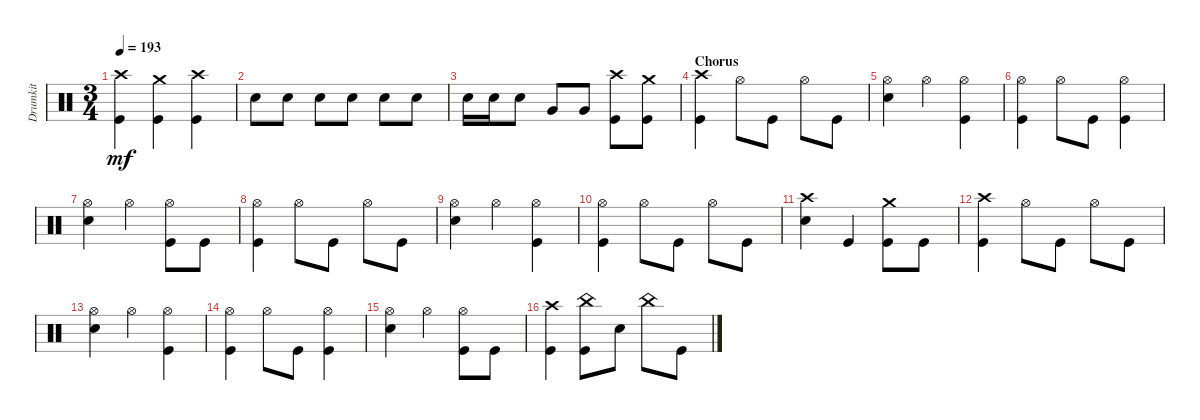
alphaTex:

\track ("Drumkit" "Drumkit") {instrument percussion}
\staff {score}
\articulation defaults
\ts (3 4)
\tempo 193
\clef neutral
\ks c
("Kick (hit)" "Crash high (hit)").4{dy mf} ("Kick (hit)" "Crash medium (hit)").4 ("Kick (hit)" "Crash high (hit)").4 |
"Snare (hit) 2".8 "Snare (hit) 2".8 "Snare (hit) 2".8 "Snare (hit) 2".8 "Snare (hit) 2".8 "Snare (hit) 2".8 |
"Snare (hit) 2".16 "Snare (hit) 2".16 "Snare (hit) 2".8 "Very Low Tom (hit)".8 "Very Low Tom (hit)".8 ("Kick (hit)" "Crash high (hit)").8 ("Kick (hit)" "Crash medium (hit)").8 |
\section ("" "Chorus")
("Crash high (hit)" "Kick (hit)").4 "Hi-Hat (open)".8 "Kick (hit)".8 "Hi-Hat (open)".8 "Kick (hit)".8 |
("Hi-Hat (open)" "Snare (hit) 2").4 "Hi-Hat (open)".4 ("Kick (hit)" "Hi-Hat (open)").4 |
("Kick (hit)" "Hi-Hat (open)").4 "Hi-Hat (open)".8 "Kick (hit)".8 ("Hi-Hat (open)" "Kick (hit)").4 |
("Hi-Hat (open)" "Snare (hit) 2").4 "Hi-Hat (open)".4 ("Kick (hit)" "Hi-Hat (open)").8 "Kick (hit)".8 |
("Kick (hit)" "Hi-Hat (open)").4 "Hi-Hat (open)".8 "Kick (hit)".8 "Hi-Hat (open)".8 "Kick (hit)".8 |
("Hi-Hat (open)" "Snare (hit) 2").4 "Hi-Hat (open)".4 ("Kick (hit)" "Hi-Hat (open)").4 |
("Kick (hit)" "Hi-Hat (open)").4 "Hi-Hat (open)".8 "Kick (hit)".8 "Hi-Hat (open)".8 "Kick (hit)".8 |
("Snare (hit) 2" "Crash high (hit)").4 "Kick (hit)".4 ("Kick (hit)" "Crash medium (hit)").8 "Kick (hit)".8 |
("Crash high (hit)" "Kick (hit)").4 "Hi-Hat (open)".8 "Kick (hit)".8 "Hi-Hat (open)".8 "Kick (hit)".8 |
("Hi-Hat (open)" "Snare (hit) 2").4 "Hi-Hat (open)".4 ("Kick (hit)" "Hi-Hat (open)").4 |
("Kick (hit)" "Hi-Hat (open)").4 "Hi-Hat (open)".8 "Kick (hit)".8 ("Hi-Hat (open)" "Kick (hit)").4 |
("Hi-Hat (open)" "Snare (hit) 2").4 "Hi-Hat (open)".4 ("Kick (hit)" "Hi-Hat (open)").8 "Kick (hit)".8 |
("Crash high (hit)" "Kick (hit)").4 ("Kick (hit)" "China (hit)").8 "Snare (hit) 2".8 "China (hit)".8 "Kick (hit)".8
